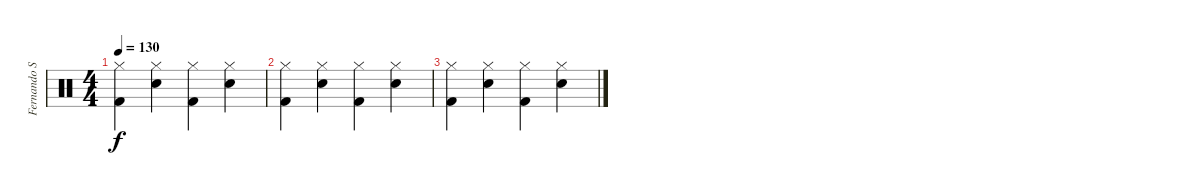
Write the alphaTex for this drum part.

\track ("Fernando Scarcella" "Fernando S") {instrument percussion}
\staff {score}
\articulation defaults
\ts (4 4)
\tempo 130
\clef neutral
\ks c
("Hi-Hat (closed)" "Kick (hit) 2").4{dy f} ("Hi-Hat (closed)" "Snare (hit) 2").4 ("Hi-Hat (closed)" "Kick (hit) 2").4 ("Hi-Hat (closed)" "Snare (hit) 2").4 |
("Hi-Hat (closed)" "Kick (hit) 2").4 ("Hi-Hat (closed)" "Snare (hit) 2").4 ("Hi-Hat (closed)" "Kick (hit) 2").4 ("Hi-Hat (closed)" "Snare (hit) 2").4 |
("Hi-Hat (closed)" "Kick (hit) 2").4 ("Hi-Hat (closed)" "Snare (hit) 2").4 ("Hi-Hat (closed)" "Kick (hit) 2").4 ("Hi-Hat (closed)" "Snare (hit) 2").4
